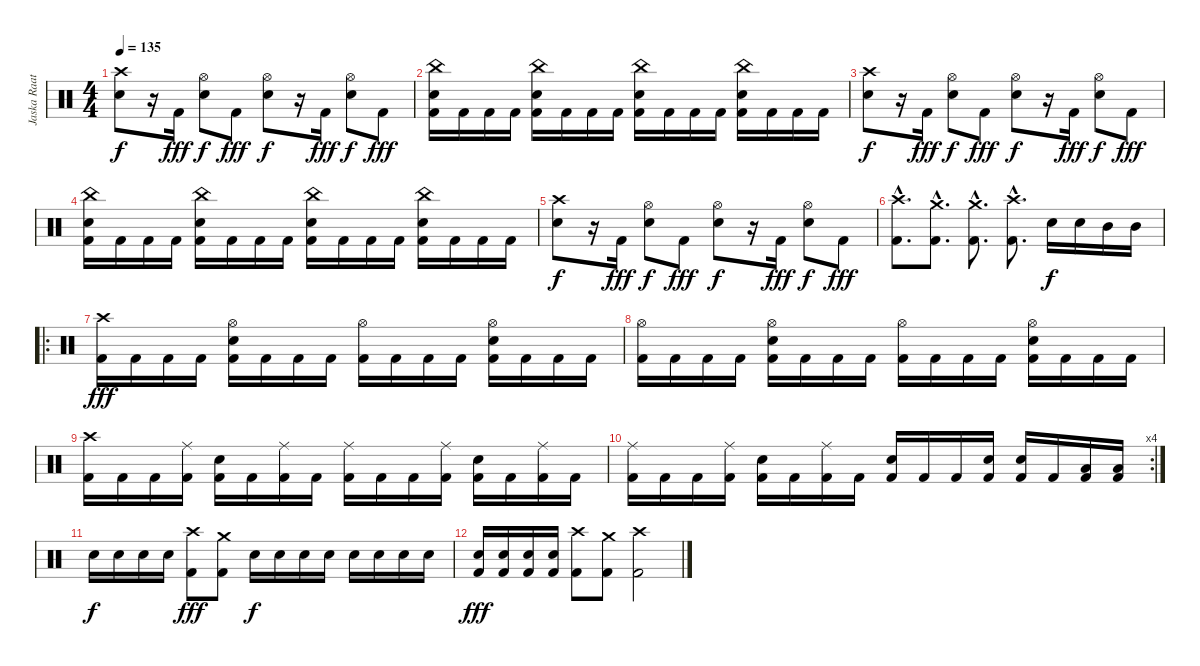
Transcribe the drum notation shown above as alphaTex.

\track ("Jaska Raatikainen" "Jaska Raat") {instrument percussion}
\staff {score}
\articulation defaults
\ts (4 4)
\tempo 135
\clef neutral
\ks c
("Crash high (hit)" "Electric Snare (hit)").8{dy f} r.16 "Kick (hit) 2".16{dy fff} ("Hi-Hat (open)" "Electric Snare (hit)").8{dy f} "Kick (hit) 2".8{dy fff} ("Hi-Hat (open)" "Electric Snare (hit)").8{dy f} r.16 "Kick (hit) 2".16{dy fff} ("Hi-Hat (open)" "Electric Snare (hit)").8{dy f} "Kick (hit) 2".8{dy fff} |
("China (hit)" "Electric Snare (hit)" "Kick (hit) 2").16 "Kick (hit) 2".16 "Kick (hit) 2".16 "Kick (hit) 2".16 ("China (hit)" "Electric Snare (hit)" "Kick (hit) 2").16 "Kick (hit) 2".16 "Kick (hit) 2".16 "Kick (hit) 2".16 ("China (hit)" "Electric Snare (hit)" "Kick (hit) 2").16 "Kick (hit) 2".16 "Kick (hit) 2".16 "Kick (hit) 2".16 ("China (hit)" "Electric Snare (hit)" "Kick (hit) 2").16 "Kick (hit) 2".16 "Kick (hit) 2".16 "Kick (hit) 2".16 |
("Crash high (hit)" "Electric Snare (hit)").8{dy f} r.16 "Kick (hit) 2".16{dy fff} ("Hi-Hat (open)" "Electric Snare (hit)").8{dy f} "Kick (hit) 2".8{dy fff} ("Hi-Hat (open)" "Electric Snare (hit)").8{dy f} r.16 "Kick (hit) 2".16{dy fff} ("Hi-Hat (open)" "Electric Snare (hit)").8{dy f} "Kick (hit) 2".8{dy fff} |
("China (hit)" "Electric Snare (hit)" "Kick (hit) 2").16 "Kick (hit) 2".16 "Kick (hit) 2".16 "Kick (hit) 2".16 ("China (hit)" "Electric Snare (hit)" "Kick (hit) 2").16 "Kick (hit) 2".16 "Kick (hit) 2".16 "Kick (hit) 2".16 ("China (hit)" "Electric Snare (hit)" "Kick (hit) 2").16 "Kick (hit) 2".16 "Kick (hit) 2".16 "Kick (hit) 2".16 ("China (hit)" "Electric Snare (hit)" "Kick (hit) 2").16 "Kick (hit) 2".16 "Kick (hit) 2".16 "Kick (hit) 2".16 |
("Crash high (hit)" "Electric Snare (hit)").8{dy f} r.16 "Kick (hit) 2".16{dy fff} ("Hi-Hat (open)" "Electric Snare (hit)").8{dy f} "Kick (hit) 2".8{dy fff} ("Hi-Hat (open)" "Electric Snare (hit)").8{dy f} r.16 "Kick (hit) 2".16{dy fff} ("Hi-Hat (open)" "Electric Snare (hit)").8{dy f} "Kick (hit) 2".8{dy fff} |
("Crash high (hit)"{hac} "Kick (hit) 2"{hac}).8{d} ("Crash medium (hit)"{hac} "Kick (hit) 2"{hac}).8{d} ("Crash medium (hit)"{hac} "Kick (hit) 2"{hac}).8{d} ("Crash high (hit)"{hac} "Kick (hit) 2"{hac}).8{d} "Electric Snare (hit)".16{dy f} "Electric Snare (hit)".16 "Mid Tom (hit)".16 "Mid Tom (hit)".16 |
\ro
("Crash high (hit)" "Kick (hit) 2").16{dy fff} "Kick (hit) 2".16 "Kick (hit) 2".16 "Kick (hit) 2".16 ("Hi-Hat (open)" "Electric Snare (hit)" "Kick (hit) 2").16 "Kick (hit) 2".16 "Kick (hit) 2".16 "Kick (hit) 2".16 ("Hi-Hat (open)" "Kick (hit) 2").16 "Kick (hit) 2".16 "Kick (hit) 2".16 "Kick (hit) 2".16 ("Hi-Hat (open)" "Electric Snare (hit)" "Kick (hit) 2").16 "Kick (hit) 2".16 "Kick (hit) 2".16 "Kick (hit) 2".16 |
("Hi-Hat (open)" "Kick (hit) 2").16 "Kick (hit) 2".16 "Kick (hit) 2".16 "Kick (hit) 2".16 ("Hi-Hat (open)" "Electric Snare (hit)" "Kick (hit) 2").16 "Kick (hit) 2".16 "Kick (hit) 2".16 "Kick (hit) 2".16 ("Hi-Hat (open)" "Kick (hit) 2").16 "Kick (hit) 2".16 "Kick (hit) 2".16 "Kick (hit) 2".16 ("Hi-Hat (open)" "Electric Snare (hit)" "Kick (hit) 2").16 "Kick (hit) 2".16 "Kick (hit) 2".16 "Kick (hit) 2".16 |
("Crash high (hit)" "Kick (hit) 2").16 "Kick (hit) 2".16 "Kick (hit) 2".16 ("Ride (middle)" "Kick (hit) 2").16 ("Electric Snare (hit)" "Kick (hit) 2").16 "Kick (hit) 2".16 ("Ride (middle)" "Kick (hit) 2").16 "Kick (hit) 2".16 ("Ride (middle)" "Kick (hit) 2").16 "Kick (hit) 2".16 "Kick (hit) 2".16 ("Ride (middle)" "Kick (hit) 2").16 ("Electric Snare (hit)" "Kick (hit) 2").16 "Kick (hit) 2".16 ("Ride (middle)" "Kick (hit) 2").16 "Kick (hit) 2".16 |
\rc 4
("Ride (middle)" "Kick (hit) 2").16 "Kick (hit) 2".16 "Kick (hit) 2".16 ("Ride (middle)" "Kick (hit) 2").16 ("Electric Snare (hit)" "Kick (hit) 2").16 "Kick (hit) 2".16 ("Ride (middle)" "Kick (hit) 2").16 "Kick (hit) 2".16 ("Electric Snare (hit)" "Kick (hit) 2").16 "Kick (hit) 2".16 "Kick (hit) 2".16 ("Electric Snare (hit)" "Kick (hit) 2").16 ("Electric Snare (hit)" "Kick (hit) 2").16 "Kick (hit) 2".16 ("Low Tom (hit)" "Kick (hit) 2").16 ("Low Tom (hit)" "Kick (hit) 2").16 |
"Electric Snare (hit)".16{dy f} "Electric Snare (hit)".16 "Electric Snare (hit)".16 "Electric Snare (hit)".16 ("Crash high (hit)" "Kick (hit) 2").8{dy fff} ("Crash medium (hit)" "Kick (hit) 2").8 "Electric Snare (hit)".16{dy f} "Electric Snare (hit)".16 "Electric Snare (hit)".16 "Electric Snare (hit)".16 "Electric Snare (hit)".16 "Electric Snare (hit)".16 "Electric Snare (hit)".16 "Electric Snare (hit)".16 |
("Electric Snare (hit)" "Kick (hit) 2").16{dy fff} ("Electric Snare (hit)" "Kick (hit) 2").16 ("Electric Snare (hit)" "Kick (hit) 2").16 ("Electric Snare (hit)" "Kick (hit) 2").16 ("Crash high (hit)" "Kick (hit) 2").8 ("Crash medium (hit)" "Kick (hit) 2").8 ("Crash high (hit)" "Kick (hit) 2").2
